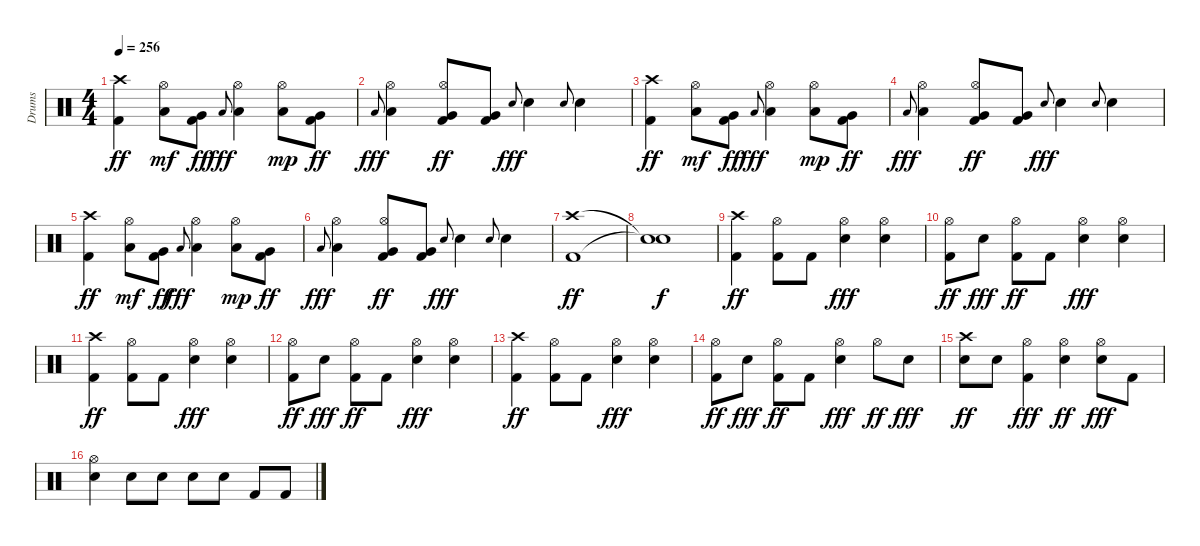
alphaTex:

\track ("Drums" "Drums") {instrument percussion}
\staff {score}
\articulation defaults
\ts (4 4)
\tempo 256
\clef neutral
\ks c
("Crash high (hit)" "Kick (hit) 2").4{dy ff} ("Hi-Hat (open)" "Low Tom (hit)").8{dy mf} ("Very Low Tom (hit)" "Kick (hit) 2").8{dy ff} "Low Floor Tom (hit)".8{gr onbeat dy fff} ("Hi-Hat (open)" "Low Floor Tom (hit)").4 ("Hi-Hat (open)" "Low Tom (hit)").8{dy mp} ("Very Low Tom (hit)" "Kick (hit) 2").8{dy ff} |
"Low Floor Tom (hit)".8{gr onbeat dy fff} ("Hi-Hat (open)" "Low Floor Tom (hit)").4 ("Hi-Hat (open)" "Very Low Tom (hit)" "Kick (hit) 2").8{dy ff} ("Very Low Tom (hit)" "Kick (hit) 2").8 "Electric Snare (hit)".8{gr onbeat dy fff} "Electric Snare (hit)".4 "Electric Snare (hit)".8{gr onbeat} "Electric Snare (hit)".4 |
("Crash high (hit)" "Kick (hit) 2").4{dy ff} ("Hi-Hat (open)" "Low Tom (hit)").8{dy mf} ("Very Low Tom (hit)" "Kick (hit) 2").8{dy ff} "Low Floor Tom (hit)".8{gr onbeat dy fff} ("Hi-Hat (open)" "Low Floor Tom (hit)").4 ("Hi-Hat (open)" "Low Tom (hit)").8{dy mp} ("Very Low Tom (hit)" "Kick (hit) 2").8{dy ff} |
"Low Floor Tom (hit)".8{gr onbeat dy fff} ("Hi-Hat (open)" "Low Floor Tom (hit)").4 ("Hi-Hat (open)" "Very Low Tom (hit)" "Kick (hit) 2").8{dy ff} ("Very Low Tom (hit)" "Kick (hit) 2").8 "Electric Snare (hit)".8{gr onbeat dy fff} "Electric Snare (hit)".4 "Electric Snare (hit)".8{gr onbeat} "Electric Snare (hit)".4 |
("Crash high (hit)" "Kick (hit) 2").4{dy ff} ("Hi-Hat (open)" "Low Tom (hit)").8{dy mf} ("Very Low Tom (hit)" "Kick (hit) 2").8{dy ff} "Low Floor Tom (hit)".8{gr onbeat dy fff} ("Hi-Hat (open)" "Low Floor Tom (hit)").4 ("Hi-Hat (open)" "Low Tom (hit)").8{dy mp} ("Very Low Tom (hit)" "Kick (hit) 2").8{dy ff} |
"Low Floor Tom (hit)".8{gr onbeat dy fff} ("Hi-Hat (open)" "Low Floor Tom (hit)").4 ("Hi-Hat (open)" "Very Low Tom (hit)" "Kick (hit) 2").8{dy ff} ("Very Low Tom (hit)" "Kick (hit) 2").8 "Electric Snare (hit)".8{gr onbeat dy fff} "Electric Snare (hit)".4 "Electric Snare (hit)".8{gr onbeat} "Electric Snare (hit)".4 |
("Crash high (hit)" "Kick (hit) 2").1{dy ff} |
("Snare (hit)"{t} "Snare (hit)"{t}).1{dy f} |
("Crash high (hit)" "Kick (hit) 2").4{dy ff} ("Hi-Hat (open)" "Kick (hit) 2").8 "Kick (hit) 2".8 ("Hi-Hat (open)" "Electric Snare (hit)").4{dy fff} ("Hi-Hat (open)" "Electric Snare (hit)").4 |
("Hi-Hat (open)" "Kick (hit) 2").8{dy ff} "Electric Snare (hit)".8{dy fff} ("Hi-Hat (open)" "Kick (hit) 2").8{dy ff} "Kick (hit) 2".8 ("Hi-Hat (open)" "Electric Snare (hit)").4{dy fff} ("Hi-Hat (open)" "Electric Snare (hit)").4 |
("Crash high (hit)" "Kick (hit) 2").4{dy ff} ("Hi-Hat (open)" "Kick (hit) 2").8 "Kick (hit) 2".8 ("Hi-Hat (open)" "Electric Snare (hit)").4{dy fff} ("Hi-Hat (open)" "Electric Snare (hit)").4 |
("Hi-Hat (open)" "Kick (hit) 2").8{dy ff} "Electric Snare (hit)".8{dy fff} ("Hi-Hat (open)" "Kick (hit) 2").8{dy ff} "Kick (hit) 2".8 ("Hi-Hat (open)" "Electric Snare (hit)").4{dy fff} ("Hi-Hat (open)" "Electric Snare (hit)").4 |
("Crash high (hit)" "Kick (hit) 2").4{dy ff} ("Hi-Hat (open)" "Kick (hit) 2").8 "Kick (hit) 2".8 ("Hi-Hat (open)" "Electric Snare (hit)").4{dy fff} ("Hi-Hat (open)" "Electric Snare (hit)").4 |
("Hi-Hat (open)" "Kick (hit) 2").8{dy ff} "Electric Snare (hit)".8{dy fff} ("Hi-Hat (open)" "Kick (hit) 2").8{dy ff} "Kick (hit) 2".8 ("Hi-Hat (open)" "Electric Snare (hit)").4{dy fff} "Hi-Hat (open)".8{dy ff} "Electric Snare (hit)".8{dy fff} |
("Crash high (hit)" "Electric Snare (hit)").8{dy ff} "Electric Snare (hit)".8 ("Hi-Hat (open)" "Kick (hit) 2").4{dy fff} ("Hi-Hat (open)" "Electric Snare (hit)").4{dy ff} ("Hi-Hat (open)" "Electric Snare (hit)").8{dy fff} "Kick (hit) 2".8 |
("Hi-Hat (open)" "Electric Snare (hit)").4 "Electric Snare (hit)".8 "Electric Snare (hit)".8 "Electric Snare (hit)".8 "Electric Snare (hit)".8 "Kick (hit) 2".8 "Kick (hit) 2".8
